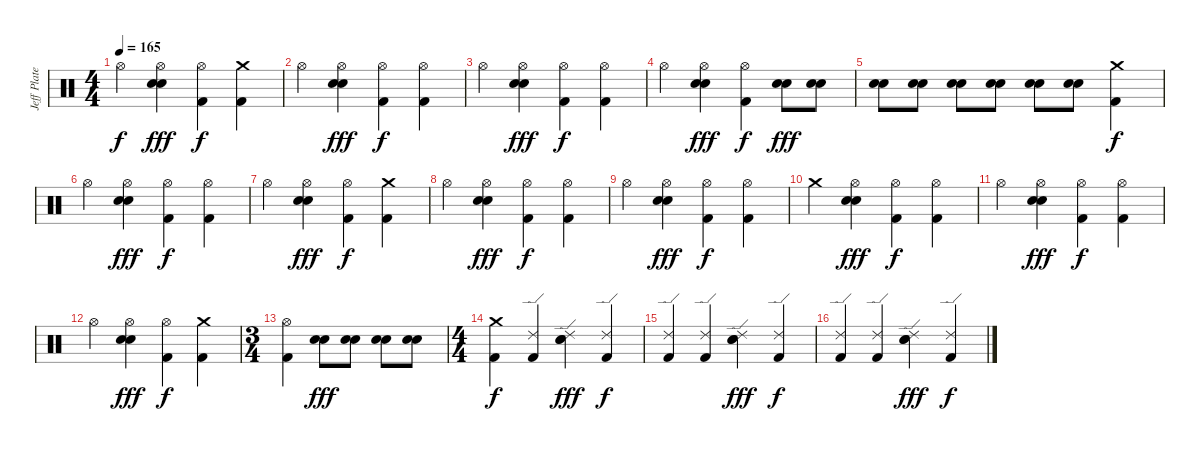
\track ("Jeff Plate" "Jeff Plate") {instrument percussion}
\staff {score}
\articulation defaults
\ts (4 4)
\tempo 165
\clef neutral
\ks c "Hi-Hat (open)".4{dy f}
("Hi-Hat (open)" "Electric Snare (hit)" "Electric Snare (hit)").4{dy fff} ("Hi-Hat (open)" "Kick (hit) 2").4{dy f} ("Crash medium (hit)" "Kick (hit) 2").4 |
"Hi-Hat (open)".4 ("Hi-Hat (open)" "Electric Snare (hit)" "Electric Snare (hit)").4{dy fff} ("Hi-Hat (open)" "Kick (hit) 2").4{dy f} ("Hi-Hat (open)" "Kick (hit) 2").4 |
"Hi-Hat (open)".4 ("Hi-Hat (open)" "Electric Snare (hit)" "Electric Snare (hit)").4{dy fff} ("Hi-Hat (open)" "Kick (hit) 2").4{dy f} ("Hi-Hat (open)" "Kick (hit) 2").4 |
"Hi-Hat (open)".4 ("Hi-Hat (open)" "Electric Snare (hit)" "Electric Snare (hit)").4{dy fff} ("Hi-Hat (open)" "Kick (hit) 2").4{dy f} ("Electric Snare (hit)" "Electric Snare (hit)").8{dy fff} ("Electric Snare (hit)" "Electric Snare (hit)").8 |
("Electric Snare (hit)" "Electric Snare (hit)").8 ("Electric Snare (hit)" "Electric Snare (hit)").8 ("Electric Snare (hit)" "Electric Snare (hit)").8 ("Electric Snare (hit)" "Electric Snare (hit)").8 ("Electric Snare (hit)" "Electric Snare (hit)").8 ("Electric Snare (hit)" "Electric Snare (hit)").8 ("Crash medium (hit)" "Kick (hit) 2").4{dy f} |
"Hi-Hat (open)".4 ("Hi-Hat (open)" "Electric Snare (hit)" "Electric Snare (hit)").4{dy fff} ("Hi-Hat (open)" "Kick (hit) 2").4{dy f} ("Hi-Hat (open)" "Kick (hit) 2").4 |
"Hi-Hat (open)".4 ("Hi-Hat (open)" "Electric Snare (hit)" "Electric Snare (hit)").4{dy fff} ("Hi-Hat (open)" "Kick (hit) 2").4{dy f} ("Crash medium (hit)" "Kick (hit) 2").4 |
"Hi-Hat (open)".4 ("Hi-Hat (open)" "Electric Snare (hit)" "Electric Snare (hit)").4{dy fff} ("Hi-Hat (open)" "Kick (hit) 2").4{dy f} ("Hi-Hat (open)" "Kick (hit) 2").4 |
"Hi-Hat (open)".4 ("Hi-Hat (open)" "Electric Snare (hit)" "Electric Snare (hit)").4{dy fff} ("Hi-Hat (open)" "Kick (hit) 2").4{dy f} ("Hi-Hat (open)" "Kick (hit) 2").4 |
"Crash medium (hit)".4 ("Hi-Hat (open)" "Electric Snare (hit)" "Electric Snare (hit)").4{dy fff} ("Hi-Hat (open)" "Kick (hit) 2").4{dy f} ("Hi-Hat (open)" "Kick (hit) 2").4 |
"Hi-Hat (open)".4 ("Hi-Hat (open)" "Electric Snare (hit)" "Electric Snare (hit)").4{dy fff} ("Hi-Hat (open)" "Kick (hit) 2").4{dy f} ("Hi-Hat (open)" "Kick (hit) 2").4 |
"Hi-Hat (open)".4 ("Hi-Hat (open)" "Electric Snare (hit)" "Electric Snare (hit)").4{dy fff} ("Hi-Hat (open)" "Kick (hit) 2").4{dy f} ("Crash medium (hit)" "Kick (hit) 2").4 |
\ts (3 4)
("Hi-Hat (open)" "Kick (hit) 2").4 ("Electric Snare (hit)" "Electric Snare (hit)").8{dy fff} ("Electric Snare (hit)" "Electric Snare (hit)").8 ("Electric Snare (hit)" "Electric Snare (hit)").8 ("Electric Snare (hit)" "Electric Snare (hit)").8 |
\ts (4 4)
("Crash medium (hit)" "Kick (hit) 2").4{dy f} ("Ride (edge) 2" "Kick (hit) 2").4 ("Ride (edge) 2" "Electric Snare (hit)" "Electric Snare (hit)").4{dy fff} ("Ride (edge) 2" "Kick (hit) 2").4{dy f} |
("Ride (edge) 2" "Kick (hit) 2").4 ("Ride (edge) 2" "Kick (hit) 2").4 ("Ride (edge) 2" "Electric Snare (hit)" "Electric Snare (hit)").4{dy fff} ("Ride (edge) 2" "Kick (hit) 2").4{dy f} |
("Ride (edge) 2" "Kick (hit) 2").4 ("Ride (edge) 2" "Kick (hit) 2").4 ("Ride (edge) 2" "Electric Snare (hit)" "Electric Snare (hit)").4{dy fff} ("Ride (edge) 2" "Kick (hit) 2").4{dy f}
